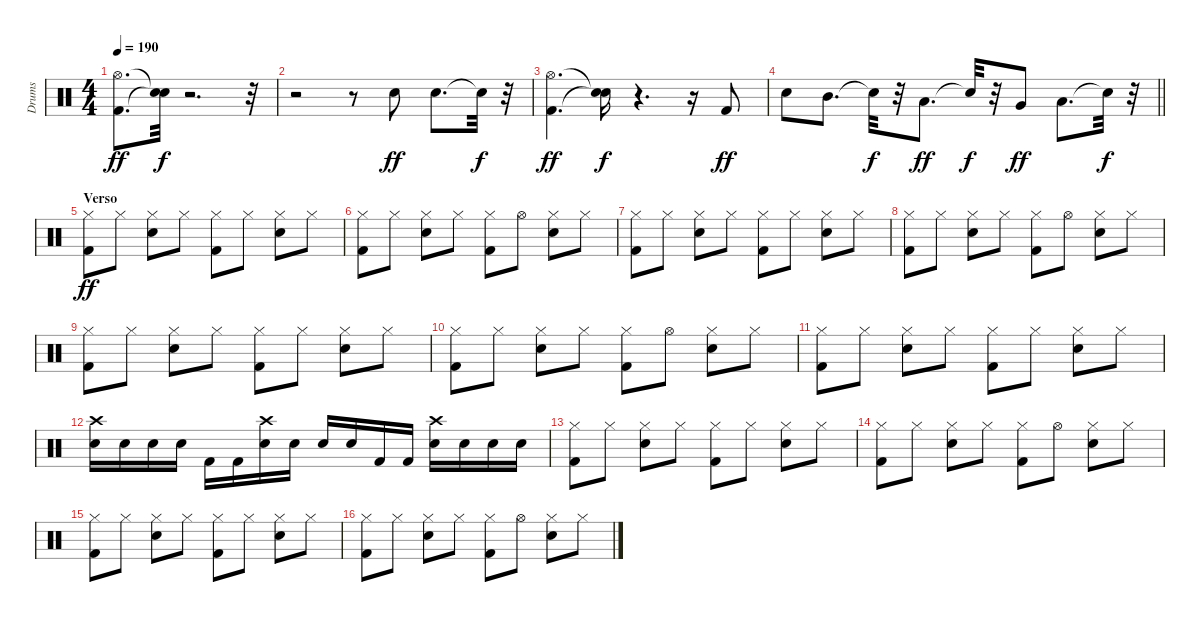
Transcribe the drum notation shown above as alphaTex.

\track ("Drums" "Drums") {instrument percussion}
\staff {score}
\articulation defaults
\ts (4 4)
\tempo 190
\clef neutral
\ks c
("Kick (hit) 2" "Hi-Hat (open)").8{d dy ff} ("Snare (hit)"{t} "Snare (hit)"{t}).32{dy f} r.2{d} r.32 |
r.2 r.8 "Snare (hit) 2".8{dy ff} "Snare (hit) 2".8{d} "Snare (hit)"{t}.32{dy f} r.32 |
("Kick (hit) 2" "Hi-Hat (open)").4{d dy ff} ("Snare (hit)"{t} "Snare (hit)"{t}).16{dy f} r.4{d} r.16 "Kick (hit) 2".8{dy ff} |
\barLineRight lightlight "Snare (hit) 2".8 "Mid Tom (hit)".8{d} "Snare (hit)"{t}.32{dy f}
r.32 "Low Tom (hit)".8{d dy ff} "Snare (hit)"{t}.32{dy f} r.32 "Very Low Tom (hit)".8{dy ff} "Low Floor Tom (hit)".8{d} "Snare (hit)"{t}.32{dy f} r.32 |
\section ("" "Verso")
("Kick (hit) 2" "Hi-Hat (closed)").8{dy ff} "Hi-Hat (closed)".8 ("Snare (hit) 2" "Hi-Hat (closed)").8 "Hi-Hat (closed)".8 ("Kick (hit) 2" "Hi-Hat (closed)").8 "Hi-Hat (closed)".8 ("Snare (hit) 2" "Hi-Hat (closed)").8 "Hi-Hat (closed)".8 |
("Kick (hit) 2" "Hi-Hat (closed)").8 "Hi-Hat (closed)".8 ("Snare (hit) 2" "Hi-Hat (closed)").8 "Hi-Hat (closed)".8 ("Kick (hit) 2" "Hi-Hat (closed)").8 "Hi-Hat (open)".8 ("Snare (hit) 2" "Hi-Hat (closed)").8 "Hi-Hat (closed)".8 |
("Kick (hit) 2" "Hi-Hat (closed)").8 "Hi-Hat (closed)".8 ("Snare (hit) 2" "Hi-Hat (closed)").8 "Hi-Hat (closed)".8 ("Kick (hit) 2" "Hi-Hat (closed)").8 "Hi-Hat (closed)".8 ("Snare (hit) 2" "Hi-Hat (closed)").8 "Hi-Hat (closed)".8 |
("Kick (hit) 2" "Hi-Hat (closed)").8 "Hi-Hat (closed)".8 ("Snare (hit) 2" "Hi-Hat (closed)").8 "Hi-Hat (closed)".8 ("Kick (hit) 2" "Hi-Hat (closed)").8 "Hi-Hat (open)".8 ("Snare (hit) 2" "Hi-Hat (closed)").8 "Hi-Hat (closed)".8 |
("Kick (hit) 2" "Hi-Hat (closed)").8 "Hi-Hat (closed)".8 ("Snare (hit) 2" "Hi-Hat (closed)").8 "Hi-Hat (closed)".8 ("Kick (hit) 2" "Hi-Hat (closed)").8 "Hi-Hat (closed)".8 ("Snare (hit) 2" "Hi-Hat (closed)").8 "Hi-Hat (closed)".8 |
("Kick (hit) 2" "Hi-Hat (closed)").8 "Hi-Hat (closed)".8 ("Snare (hit) 2" "Hi-Hat (closed)").8 "Hi-Hat (closed)".8 ("Kick (hit) 2" "Hi-Hat (closed)").8 "Hi-Hat (open)".8 ("Snare (hit) 2" "Hi-Hat (closed)").8 "Hi-Hat (closed)".8 |
("Kick (hit) 2" "Hi-Hat (closed)").8 "Hi-Hat (closed)".8 ("Snare (hit) 2" "Hi-Hat (closed)").8 "Hi-Hat (closed)".8 ("Kick (hit) 2" "Hi-Hat (closed)").8 "Hi-Hat (closed)".8 ("Snare (hit) 2" "Hi-Hat (closed)").8 "Hi-Hat (closed)".8 |
("Snare (hit) 2" "Crash high (hit)").16 "Snare (hit) 2".16 "Snare (hit) 2".16 "Snare (hit) 2".16 "Kick (hit) 2".16 "Kick (hit) 2".16 ("Snare (hit) 2" "Crash high (hit)").16 "Snare (hit) 2".16 "Snare (hit) 2".16 "Snare (hit) 2".16 "Kick (hit) 2".16 "Kick (hit) 2".16 ("Snare (hit) 2" "Crash high (hit)").16 "Snare (hit) 2".16 "Snare (hit) 2".16 "Snare (hit) 2".16 |
("Kick (hit) 2" "Hi-Hat (closed)").8 "Hi-Hat (closed)".8 ("Snare (hit) 2" "Hi-Hat (closed)").8 "Hi-Hat (closed)".8 ("Kick (hit) 2" "Hi-Hat (closed)").8 "Hi-Hat (closed)".8 ("Snare (hit) 2" "Hi-Hat (closed)").8 "Hi-Hat (closed)".8 |
("Kick (hit) 2" "Hi-Hat (closed)").8 "Hi-Hat (closed)".8 ("Snare (hit) 2" "Hi-Hat (closed)").8 "Hi-Hat (closed)".8 ("Kick (hit) 2" "Hi-Hat (closed)").8 "Hi-Hat (open)".8 ("Snare (hit) 2" "Hi-Hat (closed)").8 "Hi-Hat (closed)".8 |
("Kick (hit) 2" "Hi-Hat (closed)").8 "Hi-Hat (closed)".8 ("Snare (hit) 2" "Hi-Hat (closed)").8 "Hi-Hat (closed)".8 ("Kick (hit) 2" "Hi-Hat (closed)").8 "Hi-Hat (closed)".8 ("Snare (hit) 2" "Hi-Hat (closed)").8 "Hi-Hat (closed)".8 |
("Kick (hit) 2" "Hi-Hat (closed)").8 "Hi-Hat (closed)".8 ("Snare (hit) 2" "Hi-Hat (closed)").8 "Hi-Hat (closed)".8 ("Kick (hit) 2" "Hi-Hat (closed)").8 "Hi-Hat (open)".8 ("Snare (hit) 2" "Hi-Hat (closed)").8 "Hi-Hat (closed)".8
